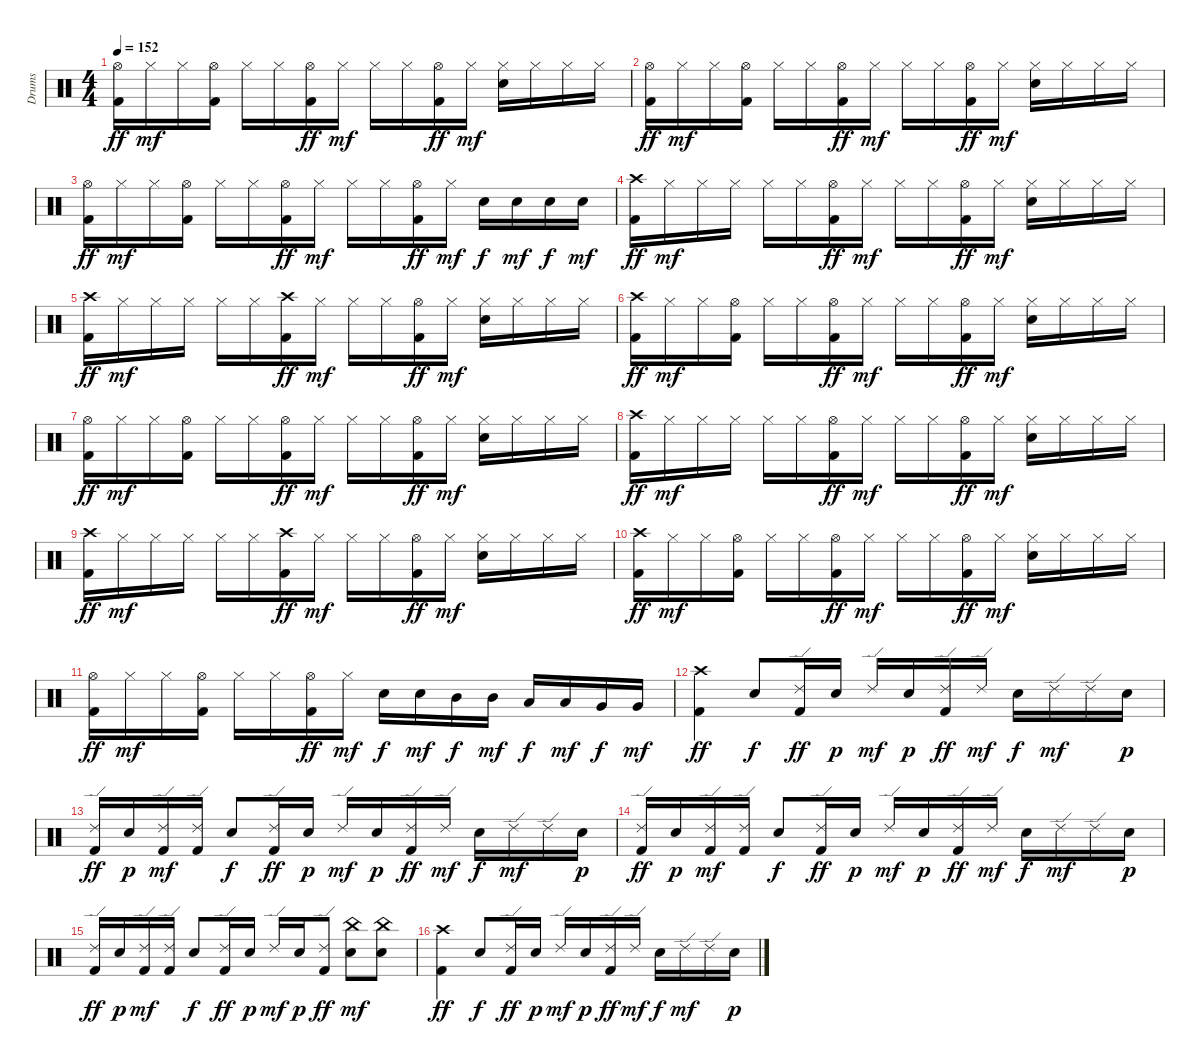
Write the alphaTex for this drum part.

\track ("Drums" "Drums") {instrument percussion}
\staff {score}
\articulation defaults
\ts (4 4)
\tempo 152
\clef neutral
\ks c
("Hi-Hat (open)" "Kick (hit) 2").16{dy ff} "Hi-Hat (closed)".16{dy mf} "Hi-Hat (closed)".16 ("Hi-Hat (open)" "Kick (hit) 2").16 "Hi-Hat (closed)".16 "Hi-Hat (closed)".16 ("Hi-Hat (open)" "Kick (hit) 2").16{dy ff} "Hi-Hat (closed)".16{dy mf} "Hi-Hat (closed)".16 "Hi-Hat (closed)".16 ("Hi-Hat (open)" "Kick (hit) 2").16{dy ff} "Hi-Hat (closed)".16{dy mf} ("Hi-Hat (closed)" "Snare (hit) 2").16 "Hi-Hat (closed)".16 "Hi-Hat (closed)".16 "Hi-Hat (closed)".16 |
("Hi-Hat (open)" "Kick (hit) 2").16{dy ff} "Hi-Hat (closed)".16{dy mf} "Hi-Hat (closed)".16 ("Hi-Hat (open)" "Kick (hit) 2").16 "Hi-Hat (closed)".16 "Hi-Hat (closed)".16 ("Hi-Hat (open)" "Kick (hit) 2").16{dy ff} "Hi-Hat (closed)".16{dy mf} "Hi-Hat (closed)".16 "Hi-Hat (closed)".16 ("Hi-Hat (open)" "Kick (hit) 2").16{dy ff} "Hi-Hat (closed)".16{dy mf} ("Hi-Hat (closed)" "Snare (hit) 2").16 "Hi-Hat (closed)".16 "Hi-Hat (closed)".16 "Hi-Hat (closed)".16 |
("Hi-Hat (open)" "Kick (hit) 2").16{dy ff} "Hi-Hat (closed)".16{dy mf} "Hi-Hat (closed)".16 ("Hi-Hat (open)" "Kick (hit) 2").16 "Hi-Hat (closed)".16 "Hi-Hat (closed)".16 ("Hi-Hat (open)" "Kick (hit) 2").16{dy ff} "Hi-Hat (closed)".16{dy mf} "Hi-Hat (closed)".16 "Hi-Hat (closed)".16 ("Hi-Hat (open)" "Kick (hit) 2").16{dy ff} "Hi-Hat (closed)".16{dy mf} "Snare (hit) 2".16{dy f} "Snare (hit) 2".16{dy mf} "Snare (hit) 2".16{dy f} "Snare (hit) 2".16{dy mf} |
("Crash high (hit)" "Kick (hit) 2").16{dy ff} "Hi-Hat (closed)".16{dy mf} "Hi-Hat (closed)".16 "Hi-Hat (closed)".16 "Hi-Hat (closed)".16 "Hi-Hat (closed)".16 ("Hi-Hat (open)" "Kick (hit) 2").16{dy ff} "Hi-Hat (closed)".16{dy mf} "Hi-Hat (closed)".16 "Hi-Hat (closed)".16 ("Hi-Hat (open)" "Kick (hit) 2").16{dy ff} "Hi-Hat (closed)".16{dy mf} ("Hi-Hat (closed)" "Snare (hit) 2").16 "Hi-Hat (closed)".16 "Hi-Hat (closed)".16 "Hi-Hat (closed)".16 |
("Crash high (hit)" "Kick (hit) 2").16{dy ff} "Hi-Hat (closed)".16{dy mf} "Hi-Hat (closed)".16 "Hi-Hat (closed)".16 "Hi-Hat (closed)".16 "Hi-Hat (closed)".16 ("Crash high (hit)" "Kick (hit) 2").16{dy ff} "Hi-Hat (closed)".16{dy mf} "Hi-Hat (closed)".16 "Hi-Hat (closed)".16 ("Hi-Hat (open)" "Kick (hit) 2").16{dy ff} "Hi-Hat (closed)".16{dy mf} ("Hi-Hat (closed)" "Snare (hit) 2").16 "Hi-Hat (closed)".16 "Hi-Hat (closed)".16 "Hi-Hat (closed)".16 |
("Crash high (hit)" "Kick (hit) 2").16{dy ff} "Hi-Hat (closed)".16{dy mf} "Hi-Hat (closed)".16 ("Hi-Hat (open)" "Kick (hit) 2").16 "Hi-Hat (closed)".16 "Hi-Hat (closed)".16 ("Hi-Hat (open)" "Kick (hit) 2").16{dy ff} "Hi-Hat (closed)".16{dy mf} "Hi-Hat (closed)".16 "Hi-Hat (closed)".16 ("Hi-Hat (open)" "Kick (hit) 2").16{dy ff} "Hi-Hat (closed)".16{dy mf} ("Hi-Hat (closed)" "Snare (hit) 2").16 "Hi-Hat (closed)".16 "Hi-Hat (closed)".16 "Hi-Hat (closed)".16 |
("Hi-Hat (open)" "Kick (hit) 2").16{dy ff} "Hi-Hat (closed)".16{dy mf} "Hi-Hat (closed)".16 ("Hi-Hat (open)" "Kick (hit) 2").16 "Hi-Hat (closed)".16 "Hi-Hat (closed)".16 ("Hi-Hat (open)" "Kick (hit) 2").16{dy ff} "Hi-Hat (closed)".16{dy mf} "Hi-Hat (closed)".16 "Hi-Hat (closed)".16 ("Hi-Hat (open)" "Kick (hit) 2").16{dy ff} "Hi-Hat (closed)".16{dy mf} ("Hi-Hat (closed)" "Snare (hit) 2").16 "Hi-Hat (closed)".16 "Hi-Hat (closed)".16 "Hi-Hat (closed)".16 |
("Crash high (hit)" "Kick (hit) 2").16{dy ff} "Hi-Hat (closed)".16{dy mf} "Hi-Hat (closed)".16 "Hi-Hat (closed)".16 "Hi-Hat (closed)".16 "Hi-Hat (closed)".16 ("Hi-Hat (open)" "Kick (hit) 2").16{dy ff} "Hi-Hat (closed)".16{dy mf} "Hi-Hat (closed)".16 "Hi-Hat (closed)".16 ("Hi-Hat (open)" "Kick (hit) 2").16{dy ff} "Hi-Hat (closed)".16{dy mf} ("Hi-Hat (closed)" "Snare (hit) 2").16 "Hi-Hat (closed)".16 "Hi-Hat (closed)".16 "Hi-Hat (closed)".16 |
("Crash high (hit)" "Kick (hit) 2").16{dy ff} "Hi-Hat (closed)".16{dy mf} "Hi-Hat (closed)".16 "Hi-Hat (closed)".16 "Hi-Hat (closed)".16 "Hi-Hat (closed)".16 ("Crash high (hit)" "Kick (hit) 2").16{dy ff} "Hi-Hat (closed)".16{dy mf} "Hi-Hat (closed)".16 "Hi-Hat (closed)".16 ("Hi-Hat (open)" "Kick (hit) 2").16{dy ff} "Hi-Hat (closed)".16{dy mf} ("Hi-Hat (closed)" "Snare (hit) 2").16 "Hi-Hat (closed)".16 "Hi-Hat (closed)".16 "Hi-Hat (closed)".16 |
("Crash high (hit)" "Kick (hit) 2").16{dy ff} "Hi-Hat (closed)".16{dy mf} "Hi-Hat (closed)".16 ("Hi-Hat (open)" "Kick (hit) 2").16 "Hi-Hat (closed)".16 "Hi-Hat (closed)".16 ("Hi-Hat (open)" "Kick (hit) 2").16{dy ff} "Hi-Hat (closed)".16{dy mf} "Hi-Hat (closed)".16 "Hi-Hat (closed)".16 ("Hi-Hat (open)" "Kick (hit) 2").16{dy ff} "Hi-Hat (closed)".16{dy mf} ("Hi-Hat (closed)" "Snare (hit) 2").16 "Hi-Hat (closed)".16 "Hi-Hat (closed)".16 "Hi-Hat (closed)".16 |
("Hi-Hat (open)" "Kick (hit) 2").16{dy ff} "Hi-Hat (closed)".16{dy mf} "Hi-Hat (closed)".16 ("Hi-Hat (open)" "Kick (hit) 2").16 "Hi-Hat (closed)".16 "Hi-Hat (closed)".16 ("Hi-Hat (open)" "Kick (hit) 2").16{dy ff} "Hi-Hat (closed)".16{dy mf} "Snare (hit) 2".16{dy f} "Snare (hit) 2".16{dy mf} "Mid Tom (hit)".16{dy f} "Mid Tom (hit)".16{dy mf} "Low Tom (hit)".16{dy f} "Low Tom (hit)".16{dy mf} "Very Low Tom (hit)".16{dy f} "Very Low Tom (hit)".16{dy mf} |
("Crash high (hit)" "Kick (hit) 2").4{dy ff} "Snare (hit) 2".8{dy f} ("Ride (edge) 2" "Kick (hit) 2").16{dy ff} "Snare (hit) 2".16{dy p} "Ride (edge) 2".16{dy mf} "Snare (hit) 2".16{dy p} ("Ride (edge) 2" "Kick (hit) 2").16{dy ff} "Ride (edge) 2".16{dy mf} "Snare (hit) 2".16{dy f} "Ride (edge) 2".16{dy mf} "Ride (edge) 2".16 "Snare (hit) 2".16{dy p} |
("Ride (edge) 2" "Kick (hit) 2").16{dy ff} "Snare (hit) 2".16{dy p} ("Ride (edge) 2" "Kick (hit) 2").16{dy mf} ("Ride (edge) 2" "Kick (hit) 2").16 "Snare (hit) 2".8{dy f} ("Ride (edge) 2" "Kick (hit) 2").16{dy ff} "Snare (hit) 2".16{dy p} "Ride (edge) 2".16{dy mf} "Snare (hit) 2".16{dy p} ("Ride (edge) 2" "Kick (hit) 2").16{dy ff} "Ride (edge) 2".16{dy mf} "Snare (hit) 2".16{dy f} "Ride (edge) 2".16{dy mf} "Ride (edge) 2".16 "Snare (hit) 2".16{dy p} |
("Ride (edge) 2" "Kick (hit) 2").16{dy ff} "Snare (hit) 2".16{dy p} ("Ride (edge) 2" "Kick (hit) 2").16{dy mf} ("Ride (edge) 2" "Kick (hit) 2").16 "Snare (hit) 2".8{dy f} ("Ride (edge) 2" "Kick (hit) 2").16{dy ff} "Snare (hit) 2".16{dy p} "Ride (edge) 2".16{dy mf} "Snare (hit) 2".16{dy p} ("Ride (edge) 2" "Kick (hit) 2").16{dy ff} "Ride (edge) 2".16{dy mf} "Snare (hit) 2".16{dy f} "Ride (edge) 2".16{dy mf} "Ride (edge) 2".16 "Snare (hit) 2".16{dy p} |
("Ride (edge) 2" "Kick (hit) 2").16{dy ff} "Snare (hit) 2".16{dy p} ("Ride (edge) 2" "Kick (hit) 2").16{dy mf} ("Ride (edge) 2" "Kick (hit) 2").16 "Snare (hit) 2".8{dy f} ("Ride (edge) 2" "Kick (hit) 2").16{dy ff} "Snare (hit) 2".16{dy p} "Ride (edge) 2".16{dy mf} "Snare (hit) 2".16{dy p} ("Ride (edge) 2" "Kick (hit) 2").8{dy ff} ("China (hit)" "Snare (hit) 2").8{dy mf} ("China (hit)" "Snare (hit) 2").8 |
("Crash high (hit)" "Kick (hit) 2").4{dy ff} "Snare (hit) 2".8{dy f} ("Ride (edge) 2" "Kick (hit) 2").16{dy ff} "Snare (hit) 2".16{dy p} "Ride (edge) 2".16{dy mf} "Snare (hit) 2".16{dy p} ("Ride (edge) 2" "Kick (hit) 2").16{dy ff} "Ride (edge) 2".16{dy mf} "Snare (hit) 2".16{dy f} "Ride (edge) 2".16{dy mf} "Ride (edge) 2".16 "Snare (hit) 2".16{dy p}
